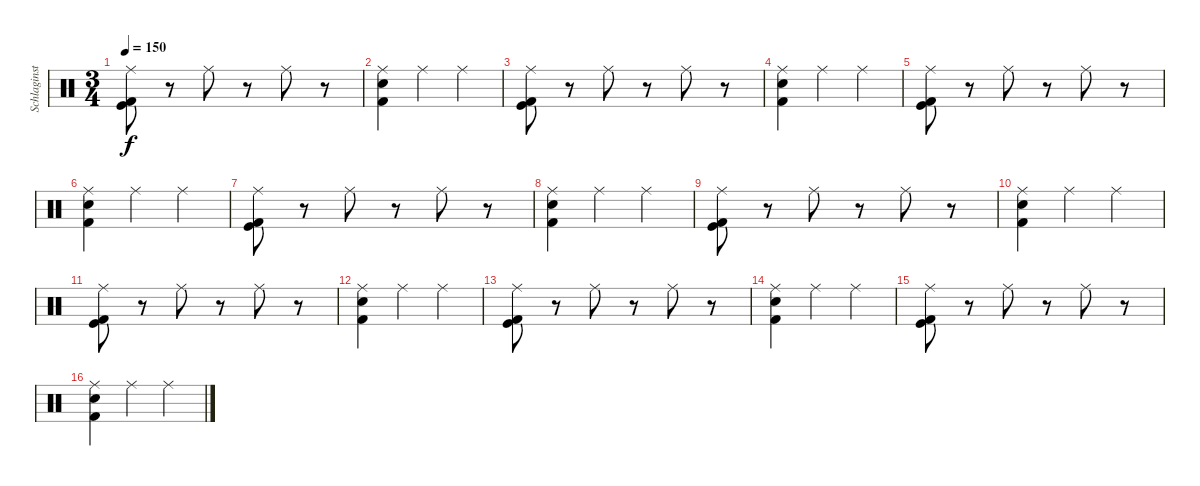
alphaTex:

\track ("Schlaginstrumente - Auswahl" "Schlaginst") {instrument percussion}
\staff {score}
\articulation defaults
\ts (3 4)
\tempo 150
\clef neutral
\ks c
("Ride (middle)" "Kick (hit)" "Kick (hit) 2").8{dy f} r.8 "Ride (middle)".8 r.8 "Ride (middle)".8 r.8 |
("Ride (middle)" "Electric Snare (hit)" "Kick (hit) 2").4 "Ride (middle)".4 "Ride (middle)".4 |
("Ride (middle)" "Kick (hit)" "Kick (hit) 2").8 r.8 "Ride (middle)".8 r.8 "Ride (middle)".8 r.8 |
("Ride (middle)" "Electric Snare (hit)" "Kick (hit) 2").4 "Ride (middle)".4 "Ride (middle)".4 |
("Ride (middle)" "Kick (hit)" "Kick (hit) 2").8 r.8 "Ride (middle)".8 r.8 "Ride (middle)".8 r.8 |
("Ride (middle)" "Electric Snare (hit)" "Kick (hit) 2").4 "Ride (middle)".4 "Ride (middle)".4 |
("Ride (middle)" "Kick (hit)" "Kick (hit) 2").8 r.8 "Ride (middle)".8 r.8 "Ride (middle)".8 r.8 |
("Ride (middle)" "Electric Snare (hit)" "Kick (hit) 2").4 "Ride (middle)".4 "Ride (middle)".4 |
("Ride (middle)" "Kick (hit)" "Kick (hit) 2").8 r.8 "Ride (middle)".8 r.8 "Ride (middle)".8 r.8 |
("Ride (middle)" "Electric Snare (hit)" "Kick (hit) 2").4 "Ride (middle)".4 "Ride (middle)".4 |
("Ride (middle)" "Kick (hit)" "Kick (hit) 2").8 r.8 "Ride (middle)".8 r.8 "Ride (middle)".8 r.8 |
("Ride (middle)" "Electric Snare (hit)" "Kick (hit) 2").4 "Ride (middle)".4 "Ride (middle)".4 |
("Ride (middle)" "Kick (hit)" "Kick (hit) 2").8 r.8 "Ride (middle)".8 r.8 "Ride (middle)".8 r.8 |
("Ride (middle)" "Electric Snare (hit)" "Kick (hit) 2").4 "Ride (middle)".4 "Ride (middle)".4 |
("Ride (middle)" "Kick (hit)" "Kick (hit) 2").8 r.8 "Ride (middle)".8 r.8 "Ride (middle)".8 r.8 |
("Ride (middle)" "Electric Snare (hit)" "Kick (hit) 2").4 "Ride (middle)".4 "Ride (middle)".4
